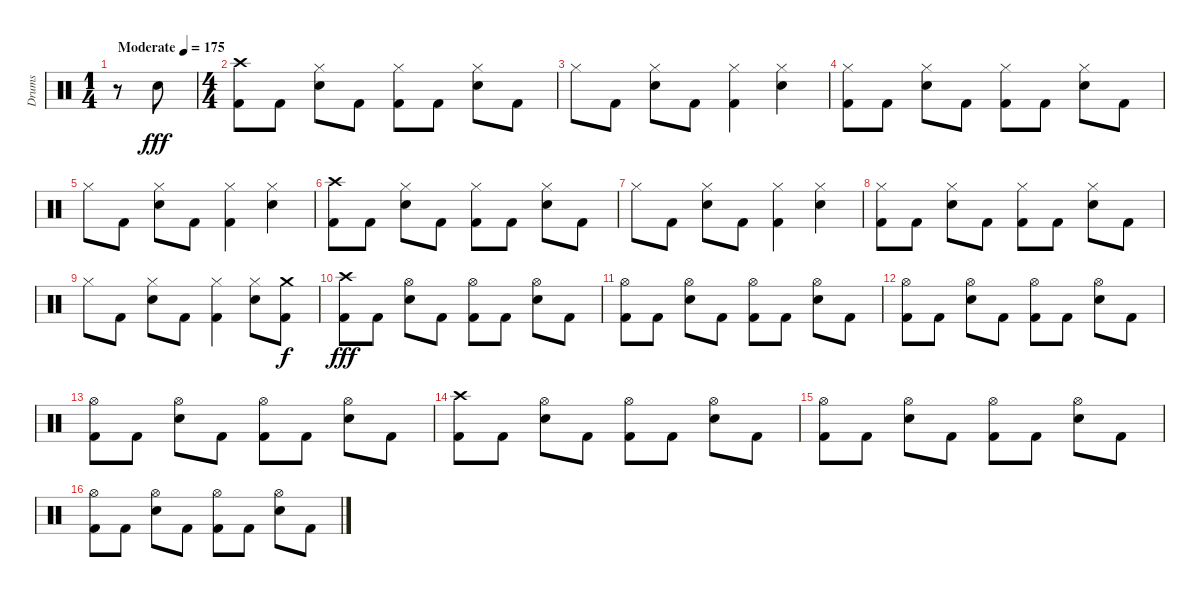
\track ("Drums" "Drums") {instrument percussion}
\staff {score}
\articulation defaults
\ts (1 4)
\tempo (175 "Moderate")
\clef neutral
\ks c
r.8{dy fff} "Electric Snare (hit)".8 |
\ts (4 4)
("Kick (hit) 2" "Crash high (hit)").8 "Kick (hit) 2".8 ("Electric Snare (hit)" "Hi-Hat (closed)").8 "Kick (hit) 2".8 ("Kick (hit) 2" "Hi-Hat (closed)").8 "Kick (hit) 2".8 ("Electric Snare (hit)" "Hi-Hat (closed)").8 "Kick (hit) 2".8 |
"Hi-Hat (closed)".8 "Kick (hit) 2".8 ("Electric Snare (hit)" "Hi-Hat (closed)").8 "Kick (hit) 2".8 ("Kick (hit) 2" "Hi-Hat (closed)").4 ("Electric Snare (hit)" "Hi-Hat (closed)").4 |
("Kick (hit) 2" "Hi-Hat (closed)").8 "Kick (hit) 2".8 ("Electric Snare (hit)" "Hi-Hat (closed)").8 "Kick (hit) 2".8 ("Kick (hit) 2" "Hi-Hat (closed)").8 "Kick (hit) 2".8 ("Electric Snare (hit)" "Hi-Hat (closed)").8 "Kick (hit) 2".8 |
"Hi-Hat (closed)".8 "Kick (hit) 2".8 ("Electric Snare (hit)" "Hi-Hat (closed)").8 "Kick (hit) 2".8 ("Kick (hit) 2" "Hi-Hat (closed)").4 ("Electric Snare (hit)" "Hi-Hat (closed)").4 |
("Kick (hit) 2" "Crash high (hit)").8 "Kick (hit) 2".8 ("Electric Snare (hit)" "Hi-Hat (closed)").8 "Kick (hit) 2".8 ("Kick (hit) 2" "Hi-Hat (closed)").8 "Kick (hit) 2".8 ("Electric Snare (hit)" "Hi-Hat (closed)").8 "Kick (hit) 2".8 |
"Hi-Hat (closed)".8 "Kick (hit) 2".8 ("Electric Snare (hit)" "Hi-Hat (closed)").8 "Kick (hit) 2".8 ("Kick (hit) 2" "Hi-Hat (closed)").4 ("Electric Snare (hit)" "Hi-Hat (closed)").4 |
("Kick (hit) 2" "Hi-Hat (closed)").8 "Kick (hit) 2".8 ("Electric Snare (hit)" "Hi-Hat (closed)").8 "Kick (hit) 2".8 ("Kick (hit) 2" "Hi-Hat (closed)").8 "Kick (hit) 2".8 ("Electric Snare (hit)" "Hi-Hat (closed)").8 "Kick (hit) 2".8 |
"Hi-Hat (closed)".8 "Kick (hit) 2".8 ("Electric Snare (hit)" "Hi-Hat (closed)").8 "Kick (hit) 2".8 ("Kick (hit) 2" "Hi-Hat (closed)").4 ("Electric Snare (hit)" "Hi-Hat (closed)").8 ("Kick (hit) 2" "Crash medium (hit)").8{dy f} |
("Kick (hit) 2" "Crash high (hit)").8{dy fff} "Kick (hit) 2".8 ("Electric Snare (hit)" "Hi-Hat (open)").8 "Kick (hit) 2".8 ("Kick (hit) 2" "Hi-Hat (open)").8 "Kick (hit) 2".8 ("Electric Snare (hit)" "Hi-Hat (open)").8 "Kick (hit) 2".8 |
("Kick (hit) 2" "Hi-Hat (open)").8 "Kick (hit) 2".8 ("Electric Snare (hit)" "Hi-Hat (open)").8 "Kick (hit) 2".8 ("Kick (hit) 2" "Hi-Hat (open)").8 "Kick (hit) 2".8 ("Electric Snare (hit)" "Hi-Hat (open)").8 "Kick (hit) 2".8 |
("Kick (hit) 2" "Hi-Hat (open)").8 "Kick (hit) 2".8 ("Electric Snare (hit)" "Hi-Hat (open)").8 "Kick (hit) 2".8 ("Kick (hit) 2" "Hi-Hat (open)").8 "Kick (hit) 2".8 ("Electric Snare (hit)" "Hi-Hat (open)").8 "Kick (hit) 2".8 |
("Kick (hit) 2" "Hi-Hat (open)").8 "Kick (hit) 2".8 ("Electric Snare (hit)" "Hi-Hat (open)").8 "Kick (hit) 2".8 ("Kick (hit) 2" "Hi-Hat (open)").8 "Kick (hit) 2".8 ("Electric Snare (hit)" "Hi-Hat (open)").8 "Kick (hit) 2".8 |
("Kick (hit) 2" "Crash high (hit)").8 "Kick (hit) 2".8 ("Electric Snare (hit)" "Hi-Hat (open)").8 "Kick (hit) 2".8 ("Kick (hit) 2" "Hi-Hat (open)").8 "Kick (hit) 2".8 ("Electric Snare (hit)" "Hi-Hat (open)").8 "Kick (hit) 2".8 |
("Kick (hit) 2" "Hi-Hat (open)").8 "Kick (hit) 2".8 ("Electric Snare (hit)" "Hi-Hat (open)").8 "Kick (hit) 2".8 ("Kick (hit) 2" "Hi-Hat (open)").8 "Kick (hit) 2".8 ("Electric Snare (hit)" "Hi-Hat (open)").8 "Kick (hit) 2".8 |
("Kick (hit) 2" "Hi-Hat (open)").8 "Kick (hit) 2".8 ("Electric Snare (hit)" "Hi-Hat (open)").8 "Kick (hit) 2".8 ("Kick (hit) 2" "Hi-Hat (open)").8 "Kick (hit) 2".8 ("Electric Snare (hit)" "Hi-Hat (open)").8 "Kick (hit) 2".8
